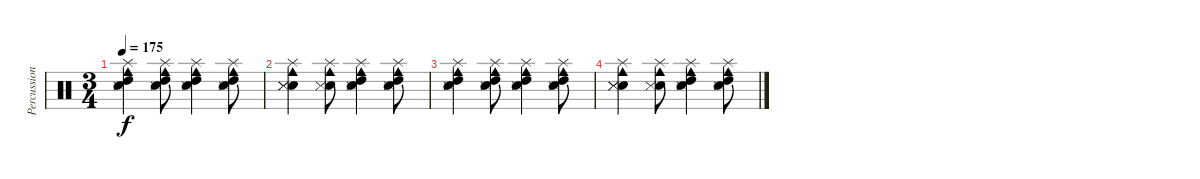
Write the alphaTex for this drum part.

\track ("Percussion" "Percussion") {instrument percussion}
\staff {score}
\articulation defaults
\ts (3 4)
\tempo 175
\clef neutral
\ks c
("Snare (hit) 2" "Snare (side stick) 3" "High Tom (hit)" "Splash (hit)" "Cowbell medium (hit)").4{dy f} ("Snare (hit) 2" "Snare (side stick) 3" "High Tom (hit)" "Splash (hit)" "Cowbell medium (hit)").8 ("Snare (hit) 2" "Snare (side stick) 3" "High Tom (hit)" "Splash (hit)" "Cowbell medium (hit)").4 ("Snare (hit) 2" "Snare (side stick) 3" "High Tom (hit)" "Splash (hit)" "Cowbell medium (hit)").8 |
("Snare (hit) 2" "Snare (side stick) 3" "Snare (side stick) 3" "Splash (hit)" "Cowbell medium (hit)").4 ("Snare (hit) 2" "Snare (side stick) 3" "Splash (hit)" "Cowbell medium (hit)").8 ("Snare (hit) 2" "Snare (side stick) 3" "High Tom (hit)" "Splash (hit)" "Cowbell medium (hit)").4 ("Snare (hit) 2" "Snare (side stick) 3" "High Tom (hit)" "Splash (hit)" "Cowbell medium (hit)").8 |
("Snare (hit) 2" "Snare (side stick) 3" "High Tom (hit)" "Splash (hit)" "Cowbell medium (hit)").4 ("Snare (hit) 2" "Snare (side stick) 3" "High Tom (hit)" "Splash (hit)" "Cowbell medium (hit)").8 ("Snare (hit) 2" "Snare (side stick) 3" "High Tom (hit)" "Splash (hit)" "Cowbell medium (hit)").4 ("Snare (hit) 2" "Snare (side stick) 3" "High Tom (hit)" "Splash (hit)" "Cowbell medium (hit)").8 |
("Snare (hit) 2" "Snare (side stick) 3" "Snare (side stick) 3" "Splash (hit)" "Cowbell medium (hit)").4 ("Snare (hit) 2" "Snare (side stick) 3" "Splash (hit)" "Cowbell medium (hit)").8 ("Snare (hit) 2" "Snare (side stick) 3" "High Tom (hit)" "Splash (hit)" "Cowbell medium (hit)").4 ("Snare (hit) 2" "Snare (side stick) 3" "High Tom (hit)" "Splash (hit)" "Cowbell medium (hit)").8
